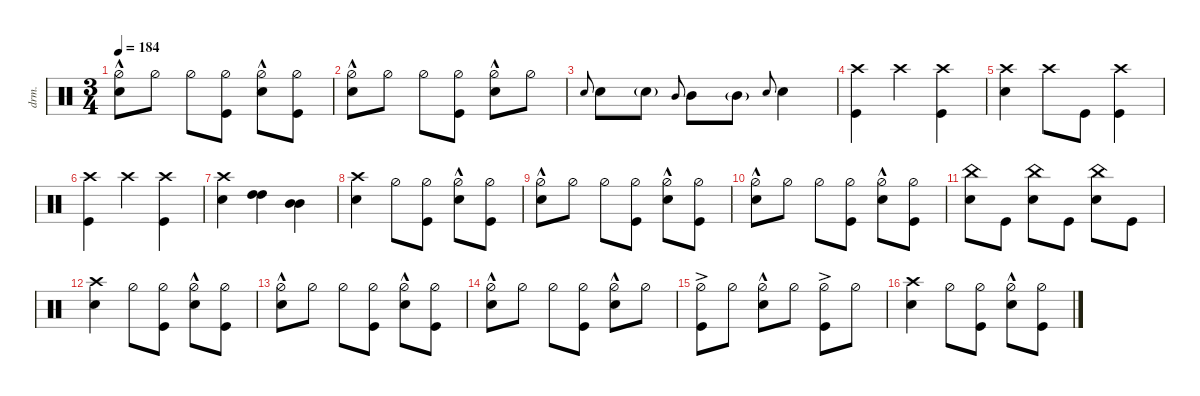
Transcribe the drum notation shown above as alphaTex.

\defaultSystemsLayout 4
\hideDynamics
\bracketExtendMode nobrackets
\otherSystemsTrackNameOrientation horizontal
\track ("Drums" "drm.") {defaultSystemsLayout 4 multiBarRest instrument percussion}
\staff {score}
\articulation defaults
\ts (3 4)
\tempo 184
\clef neutral
\ks c
("Hi-Hat (half)"{hac} "Snare (hit) 2").8{dy f} "Hi-Hat (half)".8 "Hi-Hat (half)".8 ("Hi-Hat (half)" "Kick (hit)").8 ("Hi-Hat (half)"{hac} "Snare (hit) 2").8 ("Hi-Hat (half)" "Kick (hit)").8 |
("Hi-Hat (half)"{hac} "Snare (hit) 2").8 "Hi-Hat (half)".8 "Hi-Hat (half)".8 ("Hi-Hat (half)" "Kick (hit)").8 ("Hi-Hat (half)"{hac} "Snare (hit) 2").8 "Hi-Hat (half)".8 |
"Snare (hit) 2".8{gr onbeat} "Snare (hit) 2".8 "Snare (hit) 2"{g}.8{dy mf} "Mid Tom (hit)".8{gr onbeat dy ff} "Mid Tom (hit)".8 "Mid Tom (hit)"{g}.8{dy f} "Snare (hit) 2".8{gr onbeat} "Snare (hit) 2".4 |
("Crash high (hit)" "Kick (hit)").4 "Crash high (hit)".4 ("Kick (hit)" "Crash high (hit)").4 |
("Crash high (hit)" "Snare (hit) 2").4 "Crash high (hit)".8 "Kick (hit)".8 ("Kick (hit)" "Crash high (hit)").4 |
("Crash high (hit)" "Kick (hit)").4 "Crash high (hit)".4 ("Kick (hit)" "Crash high (hit)").4 |
("Crash high (hit)" "Snare (hit) 2").4 ("High Tom (hit)" "High Tom (hit)").4{dy ff} ("Mid Tom (hit)" "Mid Tom (hit)").4 |
("Snare (hit) 2" "Crash high (hit)").4{dy f} "Hi-Hat (half)".8 ("Hi-Hat (half)" "Kick (hit)").8 ("Hi-Hat (half)"{hac} "Snare (hit) 2").8 ("Hi-Hat (half)" "Kick (hit)").8 |
("Hi-Hat (half)"{hac} "Snare (hit) 2").8 "Hi-Hat (half)".8 "Hi-Hat (half)".8 ("Hi-Hat (half)" "Kick (hit)").8 ("Hi-Hat (half)"{hac} "Snare (hit) 2").8 ("Hi-Hat (half)" "Kick (hit)").8 |
("Hi-Hat (half)"{hac} "Snare (hit) 2").8 "Hi-Hat (half)".8 "Hi-Hat (half)".8 ("Hi-Hat (half)" "Kick (hit)").8 ("Hi-Hat (half)"{hac} "Snare (hit) 2").8 ("Hi-Hat (half)" "Kick (hit)").8 |
("Snare (hit) 2" "China (hit)").8 "Kick (hit)".8 ("Snare (hit) 2" "China (hit)").8 "Kick (hit)".8 ("Snare (hit) 2" "China (hit)").8 "Kick (hit)".8 |
("Snare (hit) 2" "Crash high (hit)").4 "Hi-Hat (half)".8 ("Hi-Hat (half)" "Kick (hit)").8 ("Hi-Hat (half)"{hac} "Snare (hit) 2").8 ("Hi-Hat (half)" "Kick (hit)").8 |
("Hi-Hat (half)"{hac} "Snare (hit) 2").8 "Hi-Hat (half)".8 "Hi-Hat (half)".8 ("Hi-Hat (half)" "Kick (hit)").8 ("Hi-Hat (half)"{hac} "Snare (hit) 2").8 ("Hi-Hat (half)" "Kick (hit)").8 |
("Hi-Hat (half)"{hac} "Snare (hit) 2").8 "Hi-Hat (half)".8 "Hi-Hat (half)".8 ("Hi-Hat (half)" "Kick (hit)").8 ("Hi-Hat (half)"{hac} "Snare (hit) 2").8 "Hi-Hat (half)".8 |
("Hi-Hat (half)"{ac} "Kick (hit)").8 "Hi-Hat (half)".8 ("Hi-Hat (half)"{hac} "Snare (hit) 2").8 "Hi-Hat (half)".8 ("Hi-Hat (half)"{ac} "Kick (hit)").8 "Hi-Hat (half)".8 |
("Snare (hit) 2" "Crash high (hit)").4 "Hi-Hat (half)".8 ("Hi-Hat (half)" "Kick (hit)").8 ("Hi-Hat (half)"{hac} "Snare (hit) 2").8 ("Hi-Hat (half)" "Kick (hit)").8
